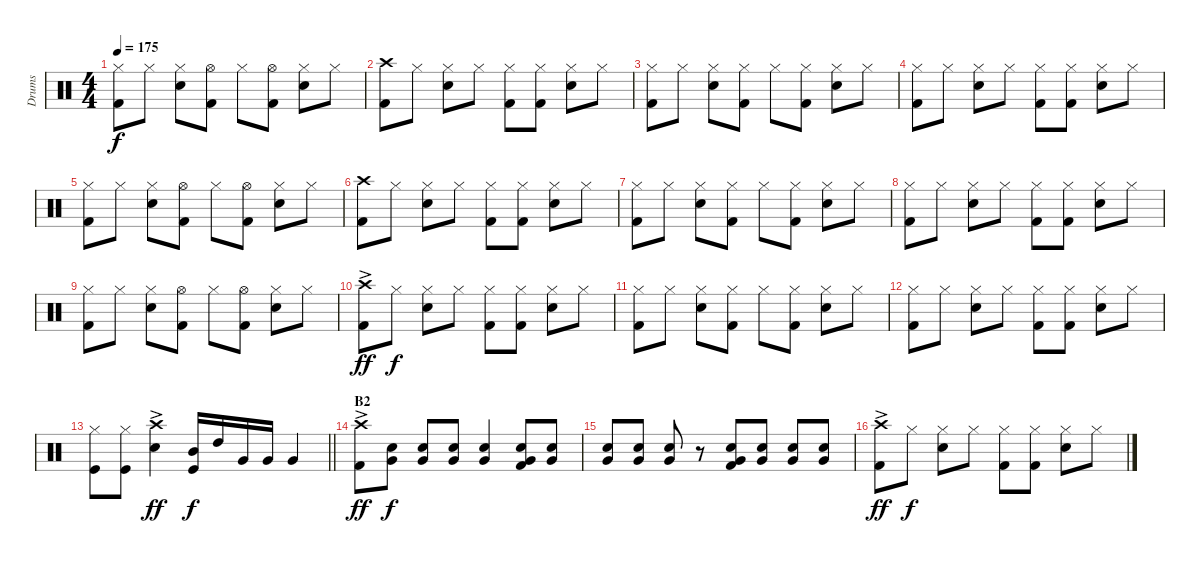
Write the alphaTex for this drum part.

\track ("Drums" "Drums") {instrument percussion}
\staff {score}
\articulation defaults
\ts (4 4)
\tempo 175
\clef neutral
\ks c
("Hi-Hat (closed)" "Kick (hit) 2").8{dy f} "Hi-Hat (closed)".8 ("Hi-Hat (closed)" "Snare (hit) 2").8 ("Hi-Hat (open)" "Kick (hit) 2").8 "Hi-Hat (closed)".8 ("Hi-Hat (open)" "Kick (hit) 2").8 ("Hi-Hat (closed)" "Snare (hit) 2").8 "Hi-Hat (closed)".8 |
("Crash high (hit)" "Kick (hit) 2").8 "Hi-Hat (closed)".8 ("Hi-Hat (closed)" "Snare (hit) 2").8 "Hi-Hat (closed)".8 ("Hi-Hat (closed)" "Kick (hit) 2").8 ("Hi-Hat (closed)" "Kick (hit) 2").8 ("Hi-Hat (closed)" "Snare (hit) 2").8 "Hi-Hat (closed)".8 |
("Hi-Hat (closed)" "Kick (hit) 2").8 "Hi-Hat (closed)".8 ("Hi-Hat (closed)" "Snare (hit) 2").8 ("Hi-Hat (closed)" "Kick (hit) 2").8 "Hi-Hat (closed)".8 ("Hi-Hat (closed)" "Kick (hit) 2").8 ("Hi-Hat (closed)" "Snare (hit) 2").8 "Hi-Hat (closed)".8 |
("Hi-Hat (closed)" "Kick (hit) 2").8 "Hi-Hat (closed)".8 ("Hi-Hat (closed)" "Snare (hit) 2").8 "Hi-Hat (closed)".8 ("Hi-Hat (closed)" "Kick (hit) 2").8 ("Hi-Hat (closed)" "Kick (hit) 2").8 ("Hi-Hat (closed)" "Snare (hit) 2").8 "Hi-Hat (closed)".8 |
("Hi-Hat (closed)" "Kick (hit) 2").8 "Hi-Hat (closed)".8 ("Hi-Hat (closed)" "Snare (hit) 2").8 ("Hi-Hat (open)" "Kick (hit) 2").8 "Hi-Hat (closed)".8 ("Hi-Hat (open)" "Kick (hit) 2").8 ("Hi-Hat (closed)" "Snare (hit) 2").8 "Hi-Hat (closed)".8 |
("Crash high (hit)" "Kick (hit) 2").8 "Hi-Hat (closed)".8 ("Hi-Hat (closed)" "Snare (hit) 2").8 "Hi-Hat (closed)".8 ("Hi-Hat (closed)" "Kick (hit) 2").8 ("Hi-Hat (closed)" "Kick (hit) 2").8 ("Hi-Hat (closed)" "Snare (hit) 2").8 "Hi-Hat (closed)".8 |
("Hi-Hat (closed)" "Kick (hit) 2").8 "Hi-Hat (closed)".8 ("Hi-Hat (closed)" "Snare (hit) 2").8 ("Hi-Hat (closed)" "Kick (hit) 2").8 "Hi-Hat (closed)".8 ("Hi-Hat (closed)" "Kick (hit) 2").8 ("Hi-Hat (closed)" "Snare (hit) 2").8 "Hi-Hat (closed)".8 |
("Hi-Hat (closed)" "Kick (hit) 2").8 "Hi-Hat (closed)".8 ("Hi-Hat (closed)" "Snare (hit) 2").8 "Hi-Hat (closed)".8 ("Hi-Hat (closed)" "Kick (hit) 2").8 ("Hi-Hat (closed)" "Kick (hit) 2").8 ("Hi-Hat (closed)" "Snare (hit) 2").8 "Hi-Hat (closed)".8 |
("Hi-Hat (closed)" "Kick (hit) 2").8 "Hi-Hat (closed)".8 ("Hi-Hat (closed)" "Snare (hit) 2").8 ("Hi-Hat (open)" "Kick (hit) 2").8 "Hi-Hat (closed)".8 ("Hi-Hat (open)" "Kick (hit) 2").8 ("Hi-Hat (closed)" "Snare (hit) 2").8 "Hi-Hat (closed)".8 |
("Crash high (hit)"{ac} "Kick (hit) 2").8{dy ff} "Hi-Hat (closed)".8{dy f} ("Hi-Hat (closed)" "Snare (hit) 2").8 "Hi-Hat (closed)".8 ("Hi-Hat (closed)" "Kick (hit) 2").8 ("Hi-Hat (closed)" "Kick (hit) 2").8 ("Hi-Hat (closed)" "Snare (hit) 2").8 "Hi-Hat (closed)".8 |
("Hi-Hat (closed)" "Kick (hit) 2").8 "Hi-Hat (closed)".8 ("Hi-Hat (closed)" "Snare (hit) 2").8 ("Hi-Hat (closed)" "Kick (hit) 2").8 "Hi-Hat (closed)".8 ("Hi-Hat (closed)" "Kick (hit) 2").8 ("Hi-Hat (closed)" "Snare (hit) 2").8 "Hi-Hat (closed)".8 |
("Hi-Hat (closed)" "Kick (hit) 2").8 "Hi-Hat (closed)".8 ("Hi-Hat (closed)" "Snare (hit) 2").8 "Hi-Hat (closed)".8 ("Hi-Hat (closed)" "Kick (hit) 2").8 ("Hi-Hat (closed)" "Kick (hit) 2").8 ("Hi-Hat (closed)" "Snare (hit) 2").8 "Hi-Hat (closed)".8 |
\barLineRight lightlight
("Hi-Hat (closed)" "Kick (hit)").8 ("Hi-Hat (closed)" "Kick (hit)").8 ("Snare (hit) 2" "Crash high (hit)"{ac}).4{dy ff} ("Kick (hit)" "Mid Tom (hit)").16{dy f} "High Tom (hit)".16 "Very Low Tom (hit)".16 "Very Low Tom (hit)".16 "Very Low Tom (hit)".4 |
\section ("" "B2")
("Crash high (hit)"{ac} "Kick (hit) 2").8{dy ff} ("Snare (hit) 2" "Very Low Tom (hit)").8{dy f} ("Snare (hit) 2" "Very Low Tom (hit)").8 ("Snare (hit) 2" "Very Low Tom (hit)").8 ("Snare (hit) 2" "Very Low Tom (hit)").4 ("Snare (hit) 2" "Very Low Tom (hit)" "Kick (hit) 2").8 ("Snare (hit) 2" "Very Low Tom (hit)").8 |
("Snare (hit) 2" "Very Low Tom (hit)").8 ("Snare (hit) 2" "Very Low Tom (hit)").8 ("Snare (hit) 2" "Very Low Tom (hit)").8 r.8 ("Snare (hit) 2" "Very Low Tom (hit)" "Kick (hit) 2").8 ("Snare (hit) 2" "Very Low Tom (hit)").8 ("Snare (hit) 2" "Very Low Tom (hit)").8 ("Snare (hit) 2" "Very Low Tom (hit)").8 |
("Crash high (hit)"{ac} "Kick (hit) 2").8{dy ff} "Hi-Hat (closed)".8{dy f} ("Hi-Hat (closed)" "Snare (hit) 2").8 "Hi-Hat (closed)".8 ("Hi-Hat (closed)" "Kick (hit) 2").8 ("Hi-Hat (closed)" "Kick (hit) 2").8 ("Hi-Hat (closed)" "Snare (hit) 2").8 "Hi-Hat (closed)".8
